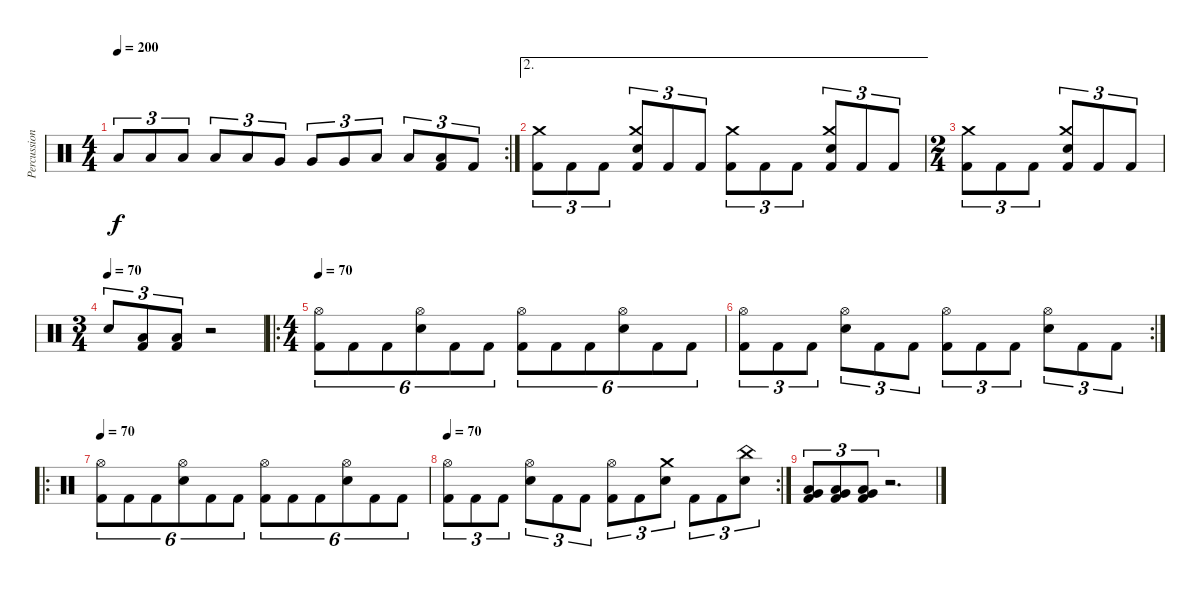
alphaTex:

\track ("Percussion" "Percussion") {instrument percussion}
\staff {score}
\articulation defaults
\rc 2
\ts (4 4)
\tempo 200
\clef neutral
\ks c "Low Tom (hit)".8{tu (3 2) dy f} "Low Tom (hit)".8{tu (3 2)} "Low Tom (hit)".8{tu (3 2)} "Low Tom (hit)".8{tu (3 2)} "Low Tom (hit)".8{tu (3 2)} "Very Low Tom (hit)".8{tu (3 2)} "Very Low Tom (hit)".8{tu (3 2)} "Very Low Tom (hit)".8{tu (3 2)} "Low Floor Tom (hit)".8{tu (3 2)} "Low Floor Tom (hit)".8{tu (3 2)}
("Low Floor Tom (hit)" "Kick (hit) 2").8{tu (3 2)} "Kick (hit) 2".8{tu (3 2)} |
\ae 2
("Crash medium (hit)" "Kick (hit) 2").8{tu (3 2)} "Kick (hit) 2".8{tu (3 2)} "Kick (hit) 2".8{tu (3 2)} ("Crash medium (hit)" "Electric Snare (hit)" "Kick (hit) 2").8{tu (3 2)} "Kick (hit) 2".8{tu (3 2)} "Kick (hit) 2".8{tu (3 2)} ("Crash medium (hit)" "Kick (hit) 2").8{tu (3 2)} "Kick (hit) 2".8{tu (3 2)} "Kick (hit) 2".8{tu (3 2)} ("Crash medium (hit)" "Electric Snare (hit)" "Kick (hit) 2").8{tu (3 2)} "Kick (hit) 2".8{tu (3 2)} "Kick (hit) 2".8{tu (3 2)} |
\ts (2 4)
("Crash medium (hit)" "Kick (hit) 2").8{tu (3 2)} "Kick (hit) 2".8{tu (3 2)} "Kick (hit) 2".8{tu (3 2)} ("Crash medium (hit)" "Electric Snare (hit)" "Kick (hit) 2").8{tu (3 2)} "Kick (hit) 2".8{tu (3 2)} "Kick (hit) 2".8{tu (3 2)} |
\ts (3 4)
\tempo (70)
"Electric Snare (hit)".8{tu (3 2)} ("Low Tom (hit)" "Kick (hit) 2").8{tu (3 2)} ("Low Floor Tom (hit)" "Kick (hit) 2").8{tu (3 2)} r.2 |
\ro
\ts (4 4)
\tempo 70
("Hi-Hat (open)" "Kick (hit) 2").8{tu (6 4)} "Kick (hit) 2".8{tu (6 4)} "Kick (hit) 2".8{tu (6 4)} ("Hi-Hat (open)" "Electric Snare (hit)").8{tu (6 4)} "Kick (hit) 2".8{tu (6 4)} "Kick (hit) 2".8{tu (6 4)} ("Hi-Hat (open)" "Kick (hit) 2").8{tu (6 4)} "Kick (hit) 2".8{tu (6 4)} "Kick (hit) 2".8{tu (6 4)} ("Hi-Hat (open)" "Electric Snare (hit)").8{tu (6 4)} "Kick (hit) 2".8{tu (6 4)} "Kick (hit) 2".8{tu (6 4)} |
\rc 2
("Hi-Hat (open)" "Kick (hit) 2").8{tu (3 2)} "Kick (hit) 2".8{tu (3 2)} "Kick (hit) 2".8{tu (3 2)} ("Hi-Hat (open)" "Electric Snare (hit)").8{tu (3 2)} "Kick (hit) 2".8{tu (3 2)} "Kick (hit) 2".8{tu (3 2)} ("Hi-Hat (open)" "Kick (hit) 2").8{tu (3 2)} "Kick (hit) 2".8{tu (3 2)} "Kick (hit) 2".8{tu (3 2)} ("Hi-Hat (open)" "Electric Snare (hit)").8{tu (3 2)} "Kick (hit) 2".8{tu (3 2)} "Kick (hit) 2".8{tu (3 2)} |
\ro
\tempo 70
("Hi-Hat (open)" "Kick (hit) 2").8{tu (6 4)} "Kick (hit) 2".8{tu (6 4)} "Kick (hit) 2".8{tu (6 4)} ("Hi-Hat (open)" "Electric Snare (hit)").8{tu (6 4)} "Kick (hit) 2".8{tu (6 4)} "Kick (hit) 2".8{tu (6 4)} ("Hi-Hat (open)" "Kick (hit) 2").8{tu (6 4)} "Kick (hit) 2".8{tu (6 4)} "Kick (hit) 2".8{tu (6 4)} ("Hi-Hat (open)" "Electric Snare (hit)").8{tu (6 4)} "Kick (hit) 2".8{tu (6 4)} "Kick (hit) 2".8{tu (6 4)} |
\rc 2
\tempo 70
("Hi-Hat (open)" "Kick (hit) 2").8{tu (3 2)} "Kick (hit) 2".8{tu (3 2)} "Kick (hit) 2".8{tu (3 2)} ("Hi-Hat (open)" "Electric Snare (hit)").8{tu (3 2)} "Kick (hit) 2".8{tu (3 2)} "Kick (hit) 2".8{tu (3 2)} ("Hi-Hat (open)" "Kick (hit) 2").8{tu (3 2)} "Kick (hit) 2".8{tu (3 2)} ("Crash medium (hit)" "Electric Snare (hit)").8{tu (3 2)} "Kick (hit) 2".8{tu (3 2)} "Kick (hit) 2".8{tu (3 2)} ("China (hit)" "Electric Snare (hit)").8{tu (3 2)} |
("Very Low Tom (hit)" "Low Floor Tom (hit)" "Kick (hit) 2").8{tu (3 2)} ("Very Low Tom (hit)" "Low Floor Tom (hit)" "Kick (hit) 2").8{tu (3 2)} ("Very Low Tom (hit)" "Low Floor Tom (hit)" "Kick (hit) 2").8{tu (3 2)} r.2{d}
